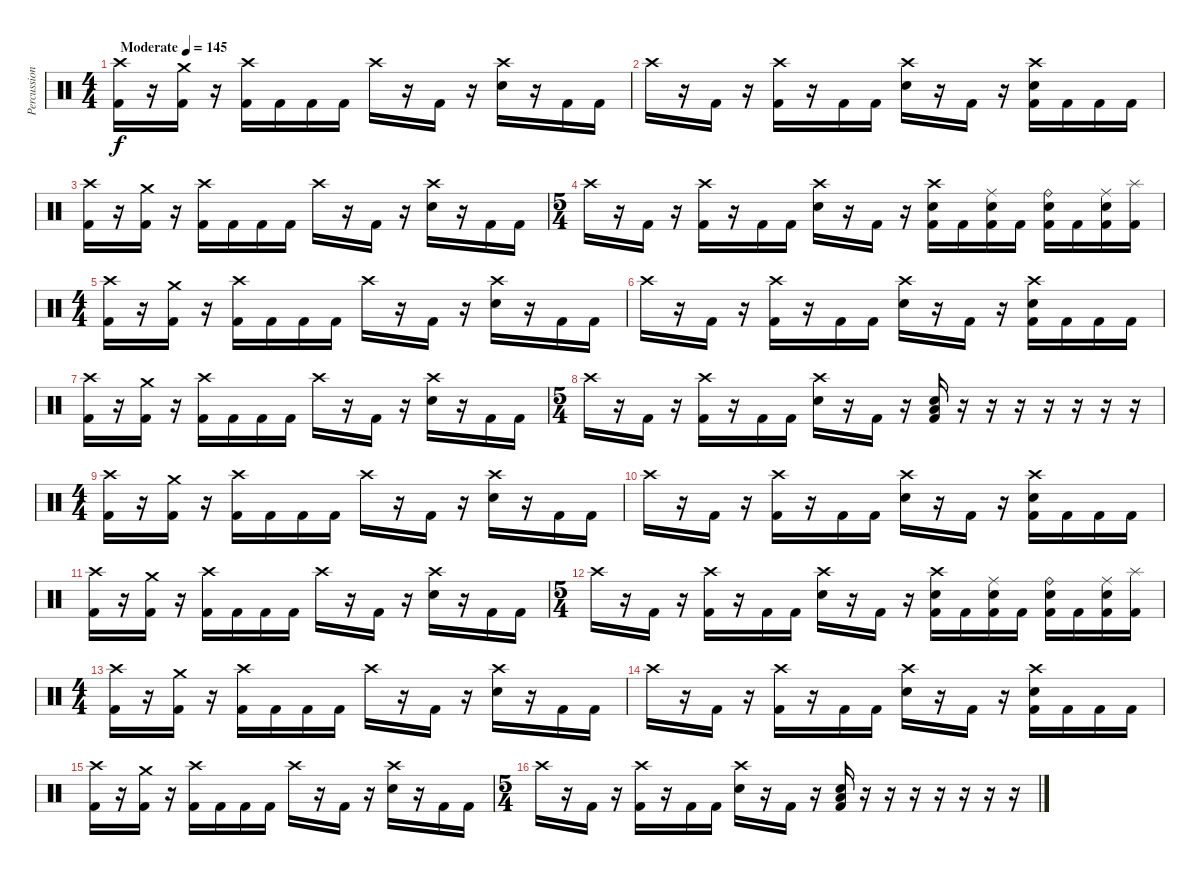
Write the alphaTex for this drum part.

\track ("Percussion" "Percussion") {instrument percussion}
\staff {score}
\articulation defaults
\ts (4 4)
\tempo (145 "Moderate")
\clef neutral
\ks c
("Crash high (hit)" "Kick (hit) 2").16{dy f} r.16 ("Crash medium (hit)" "Kick (hit) 2").16 r.16 ("Crash high (hit)" "Kick (hit) 2").16 "Kick (hit) 2".16 "Kick (hit) 2".16 "Kick (hit) 2".16 "Crash high (hit)".16 r.16 "Kick (hit) 2".16 r.16 ("Crash high (hit)" "Snare (hit) 2").16 r.16 "Kick (hit) 2".16 "Kick (hit) 2".16 |
"Crash high (hit)".16 r.16 "Kick (hit) 2".16 r.16 ("Crash high (hit)" "Kick (hit) 2").16 r.16 "Kick (hit) 2".16 "Kick (hit) 2".16 ("Crash high (hit)" "Snare (hit) 2").16 r.16 "Kick (hit) 2".16 r.16 ("Crash high (hit)" "Snare (hit) 2" "Kick (hit) 2").16 "Kick (hit) 2".16 "Kick (hit) 2".16 "Kick (hit) 2".16 |
("Crash high (hit)" "Kick (hit) 2").16 r.16 ("Crash medium (hit)" "Kick (hit) 2").16 r.16 ("Crash high (hit)" "Kick (hit) 2").16 "Kick (hit) 2".16 "Kick (hit) 2".16 "Kick (hit) 2".16 "Crash high (hit)".16 r.16 "Kick (hit) 2".16 r.16 ("Crash high (hit)" "Snare (hit) 2").16 r.16 "Kick (hit) 2".16 "Kick (hit) 2".16 |
\ts (5 4)
"Crash high (hit)".16 r.16 "Kick (hit) 2".16 r.16 ("Crash high (hit)" "Kick (hit) 2").16 r.16 "Kick (hit) 2".16 "Kick (hit) 2".16 ("Crash high (hit)" "Snare (hit) 2").16 r.16 "Kick (hit) 2".16 r.16 ("Crash high (hit)" "Snare (hit) 2" "Kick (hit) 2").16 "Kick (hit) 2".16 ("Ride (middle)" "Snare (hit) 2" "Kick (hit) 2").16 "Kick (hit) 2".16 ("Ride (bell)" "Snare (hit) 2" "Kick (hit) 2").16 "Kick (hit) 2".16 ("Ride (middle)" "Snare (hit) 2" "Kick (hit) 2").16 ("Splash (hit)" "Kick (hit) 2").16 |
\ts (4 4)
("Crash high (hit)" "Kick (hit) 2").16 r.16 ("Crash medium (hit)" "Kick (hit) 2").16 r.16 ("Crash high (hit)" "Kick (hit) 2").16 "Kick (hit) 2".16 "Kick (hit) 2".16 "Kick (hit) 2".16 "Crash high (hit)".16 r.16 "Kick (hit) 2".16 r.16 ("Crash high (hit)" "Snare (hit) 2").16 r.16 "Kick (hit) 2".16 "Kick (hit) 2".16 |
"Crash high (hit)".16 r.16 "Kick (hit) 2".16 r.16 ("Crash high (hit)" "Kick (hit) 2").16 r.16 "Kick (hit) 2".16 "Kick (hit) 2".16 ("Crash high (hit)" "Snare (hit) 2").16 r.16 "Kick (hit) 2".16 r.16 ("Crash high (hit)" "Snare (hit) 2" "Kick (hit) 2").16 "Kick (hit) 2".16 "Kick (hit) 2".16 "Kick (hit) 2".16 |
("Crash high (hit)" "Kick (hit) 2").16 r.16 ("Crash medium (hit)" "Kick (hit) 2").16 r.16 ("Crash high (hit)" "Kick (hit) 2").16 "Kick (hit) 2".16 "Kick (hit) 2".16 "Kick (hit) 2".16 "Crash high (hit)".16 r.16 "Kick (hit) 2".16 r.16 ("Crash high (hit)" "Snare (hit) 2").16 r.16 "Kick (hit) 2".16 "Kick (hit) 2".16 |
\ts (5 4)
"Crash high (hit)".16 r.16 "Kick (hit) 2".16 r.16 ("Crash high (hit)" "Kick (hit) 2").16 r.16 "Kick (hit) 2".16 "Kick (hit) 2".16 ("Crash high (hit)" "Snare (hit) 2").16 r.16 "Kick (hit) 2".16 r.16 ("Low Floor Tom (hit)" "Snare (hit) 2" "Kick (hit) 2").16 r.16 r.16 r.16 r.16 r.16 r.16 r.16 |
\ts (4 4)
("Crash high (hit)" "Kick (hit) 2").16 r.16 ("Crash medium (hit)" "Kick (hit) 2").16 r.16 ("Crash high (hit)" "Kick (hit) 2").16 "Kick (hit) 2".16 "Kick (hit) 2".16 "Kick (hit) 2".16 "Crash high (hit)".16 r.16 "Kick (hit) 2".16 r.16 ("Crash high (hit)" "Snare (hit) 2").16 r.16 "Kick (hit) 2".16 "Kick (hit) 2".16 |
"Crash high (hit)".16 r.16 "Kick (hit) 2".16 r.16 ("Crash high (hit)" "Kick (hit) 2").16 r.16 "Kick (hit) 2".16 "Kick (hit) 2".16 ("Crash high (hit)" "Snare (hit) 2").16 r.16 "Kick (hit) 2".16 r.16 ("Crash high (hit)" "Snare (hit) 2" "Kick (hit) 2").16 "Kick (hit) 2".16 "Kick (hit) 2".16 "Kick (hit) 2".16 |
("Crash high (hit)" "Kick (hit) 2").16 r.16 ("Crash medium (hit)" "Kick (hit) 2").16 r.16 ("Crash high (hit)" "Kick (hit) 2").16 "Kick (hit) 2".16 "Kick (hit) 2".16 "Kick (hit) 2".16 "Crash high (hit)".16 r.16 "Kick (hit) 2".16 r.16 ("Crash high (hit)" "Snare (hit) 2").16 r.16 "Kick (hit) 2".16 "Kick (hit) 2".16 |
\ts (5 4)
"Crash high (hit)".16 r.16 "Kick (hit) 2".16 r.16 ("Crash high (hit)" "Kick (hit) 2").16 r.16 "Kick (hit) 2".16 "Kick (hit) 2".16 ("Crash high (hit)" "Snare (hit) 2").16 r.16 "Kick (hit) 2".16 r.16 ("Crash high (hit)" "Snare (hit) 2" "Kick (hit) 2").16 "Kick (hit) 2".16 ("Ride (middle)" "Snare (hit) 2" "Kick (hit) 2").16 "Kick (hit) 2".16 ("Ride (bell)" "Snare (hit) 2" "Kick (hit) 2").16 "Kick (hit) 2".16 ("Ride (middle)" "Snare (hit) 2" "Kick (hit) 2").16 ("Splash (hit)" "Kick (hit) 2").16 |
\ts (4 4)
("Crash high (hit)" "Kick (hit) 2").16 r.16 ("Crash medium (hit)" "Kick (hit) 2").16 r.16 ("Crash high (hit)" "Kick (hit) 2").16 "Kick (hit) 2".16 "Kick (hit) 2".16 "Kick (hit) 2".16 "Crash high (hit)".16 r.16 "Kick (hit) 2".16 r.16 ("Crash high (hit)" "Snare (hit) 2").16 r.16 "Kick (hit) 2".16 "Kick (hit) 2".16 |
"Crash high (hit)".16 r.16 "Kick (hit) 2".16 r.16 ("Crash high (hit)" "Kick (hit) 2").16 r.16 "Kick (hit) 2".16 "Kick (hit) 2".16 ("Crash high (hit)" "Snare (hit) 2").16 r.16 "Kick (hit) 2".16 r.16 ("Crash high (hit)" "Snare (hit) 2" "Kick (hit) 2").16 "Kick (hit) 2".16 "Kick (hit) 2".16 "Kick (hit) 2".16 |
("Crash high (hit)" "Kick (hit) 2").16 r.16 ("Crash medium (hit)" "Kick (hit) 2").16 r.16 ("Crash high (hit)" "Kick (hit) 2").16 "Kick (hit) 2".16 "Kick (hit) 2".16 "Kick (hit) 2".16 "Crash high (hit)".16 r.16 "Kick (hit) 2".16 r.16 ("Crash high (hit)" "Snare (hit) 2").16 r.16 "Kick (hit) 2".16 "Kick (hit) 2".16 |
\ts (5 4)
"Crash high (hit)".16 r.16 "Kick (hit) 2".16 r.16 ("Crash high (hit)" "Kick (hit) 2").16 r.16 "Kick (hit) 2".16 "Kick (hit) 2".16 ("Crash high (hit)" "Snare (hit) 2").16 r.16 "Kick (hit) 2".16 r.16 ("Low Floor Tom (hit)" "Snare (hit) 2" "Kick (hit) 2").16 r.16 r.16 r.16 r.16 r.16 r.16 r.16
